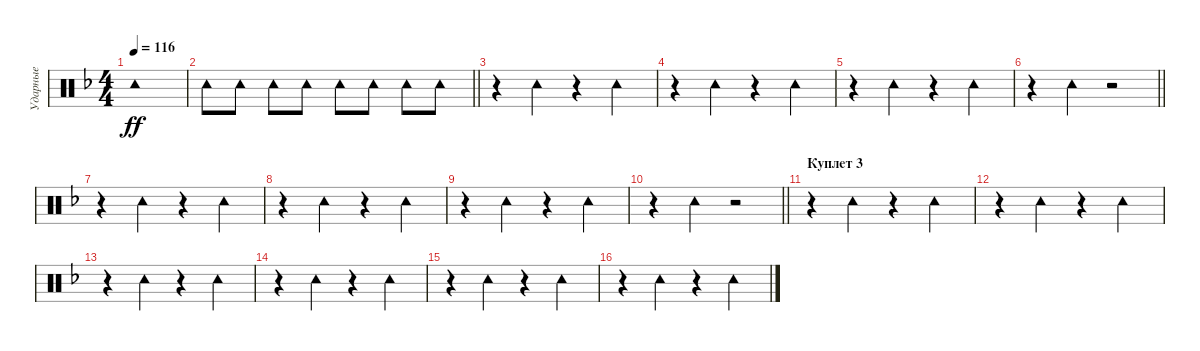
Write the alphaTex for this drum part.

\track ("Ударные" "Ударные") {instrument percussion}
\staff {score}
\articulation defaults
\ts (4 4)
\tempo 116
\clef neutral
\ks dminor "Tambourine (hit)".1{dy ff}
|
\barLineRight lightlight "Tambourine (hit)".8 "Tambourine (hit)".8 "Tambourine (hit)".8 "Tambourine (hit)".8 "Tambourine (hit)".8 "Tambourine (hit)".8 "Tambourine (hit)".8 "Tambourine (hit)".8
|
r.4 "Tambourine (hit)".4 r.4 "Tambourine (hit)".4 |
r.4 "Tambourine (hit)".4 r.4 "Tambourine (hit)".4 |
r.4 "Tambourine (hit)".4 r.4 "Tambourine (hit)".4 |
\barLineRight lightlight
r.4 "Tambourine (hit)".4 r.2 |
r.4 "Tambourine (hit)".4 r.4 "Tambourine (hit)".4 |
r.4 "Tambourine (hit)".4 r.4 "Tambourine (hit)".4 |
r.4 "Tambourine (hit)".4 r.4 "Tambourine (hit)".4 |
\barLineRight lightlight
r.4 "Tambourine (hit)".4 r.2 |
\section ("" "Куплет 3")
r.4 "Tambourine (hit)".4 r.4 "Tambourine (hit)".4 |
r.4 "Tambourine (hit)".4 r.4 "Tambourine (hit)".4 |
r.4 "Tambourine (hit)".4 r.4 "Tambourine (hit)".4 |
r.4 "Tambourine (hit)".4 r.4 "Tambourine (hit)".4 |
r.4 "Tambourine (hit)".4 r.4 "Tambourine (hit)".4 |
r.4 "Tambourine (hit)".4 r.4 "Tambourine (hit)".4
